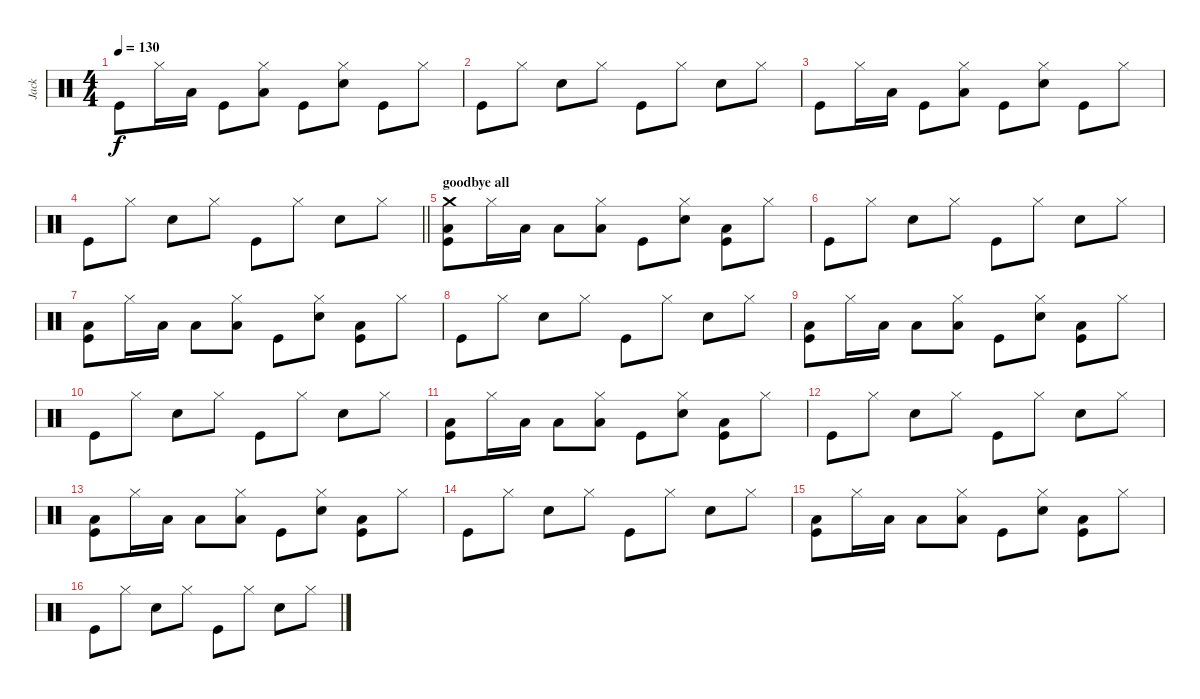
\track ("Jack" "Jack") {instrument percussion}
\staff {score}
\articulation defaults
\ts (4 4)
\tempo 130
\clef neutral
\ks c "Kick (hit)".8{dy f} "Hi-Hat (closed)".16 "Low Floor Tom (hit)".16 "Kick (hit)".8
("Hi-Hat (closed)" "Low Floor Tom (hit)").8 "Kick (hit)".8 ("Hi-Hat (closed)" "Electric Snare (hit)").8 "Kick (hit)".8 "Hi-Hat (closed)".8 |
"Kick (hit)".8 "Hi-Hat (closed)".8 "Electric Snare (hit)".8 "Hi-Hat (closed)".8 "Kick (hit)".8 "Hi-Hat (closed)".8 "Electric Snare (hit)".8 "Hi-Hat (closed)".8 |
"Kick (hit)".8 "Hi-Hat (closed)".16 "Low Floor Tom (hit)".16 "Kick (hit)".8 ("Hi-Hat (closed)" "Low Floor Tom (hit)").8 "Kick (hit)".8 ("Hi-Hat (closed)" "Electric Snare (hit)").8 "Kick (hit)".8 "Hi-Hat (closed)".8 |
\barLineRight lightlight "Kick (hit)".8 "Hi-Hat (closed)".8 "Electric Snare (hit)".8 "Hi-Hat (closed)".8 "Kick (hit)".8 "Hi-Hat (closed)".8 "Electric Snare (hit)".8 "Hi-Hat (closed)".8
|
\section ("" "goodbye all")
("Crash medium (hit)" "Low Floor Tom (hit)" "Kick (hit)").8 "Hi-Hat (closed)".16 "Low Floor Tom (hit)".16 "Low Floor Tom (hit)".8 ("Hi-Hat (closed)" "Low Floor Tom (hit)").8 "Kick (hit)".8 ("Hi-Hat (closed)" "Electric Snare (hit)").8 ("Low Floor Tom (hit)" "Kick (hit)").8 "Hi-Hat (closed)".8 |
"Kick (hit)".8 "Hi-Hat (closed)".8 "Electric Snare (hit)".8 "Hi-Hat (closed)".8 "Kick (hit)".8 "Hi-Hat (closed)".8 "Electric Snare (hit)".8 "Hi-Hat (closed)".8 |
("Low Floor Tom (hit)" "Kick (hit)").8 "Hi-Hat (closed)".16 "Low Floor Tom (hit)".16 "Low Floor Tom (hit)".8 ("Hi-Hat (closed)" "Low Floor Tom (hit)").8 "Kick (hit)".8 ("Hi-Hat (closed)" "Electric Snare (hit)").8 ("Low Floor Tom (hit)" "Kick (hit)").8 "Hi-Hat (closed)".8 |
"Kick (hit)".8 "Hi-Hat (closed)".8 "Electric Snare (hit)".8 "Hi-Hat (closed)".8 "Kick (hit)".8 "Hi-Hat (closed)".8 "Electric Snare (hit)".8 "Hi-Hat (closed)".8 |
("Low Floor Tom (hit)" "Kick (hit)").8 "Hi-Hat (closed)".16 "Low Floor Tom (hit)".16 "Low Floor Tom (hit)".8 ("Hi-Hat (closed)" "Low Floor Tom (hit)").8 "Kick (hit)".8 ("Hi-Hat (closed)" "Electric Snare (hit)").8 ("Low Floor Tom (hit)" "Kick (hit)").8 "Hi-Hat (closed)".8 |
"Kick (hit)".8 "Hi-Hat (closed)".8 "Electric Snare (hit)".8 "Hi-Hat (closed)".8 "Kick (hit)".8 "Hi-Hat (closed)".8 "Electric Snare (hit)".8 "Hi-Hat (closed)".8 |
("Low Floor Tom (hit)" "Kick (hit)").8 "Hi-Hat (closed)".16 "Low Floor Tom (hit)".16 "Low Floor Tom (hit)".8 ("Hi-Hat (closed)" "Low Floor Tom (hit)").8 "Kick (hit)".8 ("Hi-Hat (closed)" "Electric Snare (hit)").8 ("Low Floor Tom (hit)" "Kick (hit)").8 "Hi-Hat (closed)".8 |
"Kick (hit)".8 "Hi-Hat (closed)".8 "Electric Snare (hit)".8 "Hi-Hat (closed)".8 "Kick (hit)".8 "Hi-Hat (closed)".8 "Electric Snare (hit)".8 "Hi-Hat (closed)".8 |
("Low Floor Tom (hit)" "Kick (hit)").8 "Hi-Hat (closed)".16 "Low Floor Tom (hit)".16 "Low Floor Tom (hit)".8 ("Hi-Hat (closed)" "Low Floor Tom (hit)").8 "Kick (hit)".8 ("Hi-Hat (closed)" "Electric Snare (hit)").8 ("Low Floor Tom (hit)" "Kick (hit)").8 "Hi-Hat (closed)".8 |
"Kick (hit)".8 "Hi-Hat (closed)".8 "Electric Snare (hit)".8 "Hi-Hat (closed)".8 "Kick (hit)".8 "Hi-Hat (closed)".8 "Electric Snare (hit)".8 "Hi-Hat (closed)".8 |
("Low Floor Tom (hit)" "Kick (hit)").8 "Hi-Hat (closed)".16 "Low Floor Tom (hit)".16 "Low Floor Tom (hit)".8 ("Hi-Hat (closed)" "Low Floor Tom (hit)").8 "Kick (hit)".8 ("Hi-Hat (closed)" "Electric Snare (hit)").8 ("Low Floor Tom (hit)" "Kick (hit)").8 "Hi-Hat (closed)".8 |
"Kick (hit)".8 "Hi-Hat (closed)".8 "Electric Snare (hit)".8 "Hi-Hat (closed)".8 "Kick (hit)".8 "Hi-Hat (closed)".8 "Electric Snare (hit)".8 "Hi-Hat (closed)".8
